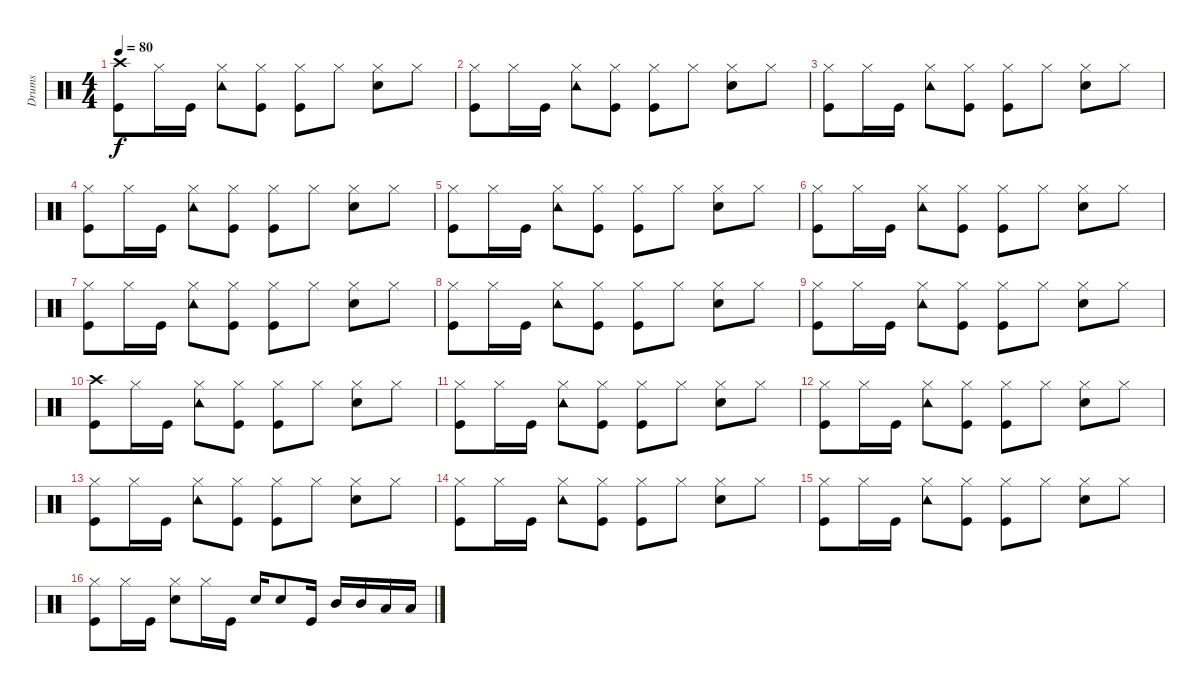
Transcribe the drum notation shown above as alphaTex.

\track ("Drums" "Drums") {instrument percussion}
\staff {score}
\articulation defaults
\ts (4 4)
\tempo 80
\clef neutral
\ks c
("Crash high (hit)" "Kick (hit)").8{dy f} "Hi-Hat (closed)".16 "Kick (hit)".16 ("Tambourine (hit)" "Hi-Hat (closed)").8 ("Hi-Hat (closed)" "Kick (hit)").8 ("Hi-Hat (closed)" "Kick (hit)").8 "Hi-Hat (closed)".8 ("Electric Snare (hit)" "Hi-Hat (closed)").8 "Hi-Hat (closed)".8 |
("Hi-Hat (closed)" "Kick (hit)").8 "Hi-Hat (closed)".16 "Kick (hit)".16 ("Tambourine (hit)" "Hi-Hat (closed)").8 ("Hi-Hat (closed)" "Kick (hit)").8 ("Hi-Hat (closed)" "Kick (hit)").8 "Hi-Hat (closed)".8 ("Electric Snare (hit)" "Hi-Hat (closed)").8 "Hi-Hat (closed)".8 |
("Hi-Hat (closed)" "Kick (hit)").8 "Hi-Hat (closed)".16 "Kick (hit)".16 ("Tambourine (hit)" "Hi-Hat (closed)").8 ("Hi-Hat (closed)" "Kick (hit)").8 ("Hi-Hat (closed)" "Kick (hit)").8 "Hi-Hat (closed)".8 ("Electric Snare (hit)" "Hi-Hat (closed)").8 "Hi-Hat (closed)".8 |
("Hi-Hat (closed)" "Kick (hit)").8 "Hi-Hat (closed)".16 "Kick (hit)".16 ("Tambourine (hit)" "Hi-Hat (closed)").8 ("Hi-Hat (closed)" "Kick (hit)").8 ("Hi-Hat (closed)" "Kick (hit)").8 "Hi-Hat (closed)".8 ("Electric Snare (hit)" "Hi-Hat (closed)").8 "Hi-Hat (closed)".8 |
("Hi-Hat (closed)" "Kick (hit)").8 "Hi-Hat (closed)".16 "Kick (hit)".16 ("Tambourine (hit)" "Hi-Hat (closed)").8 ("Hi-Hat (closed)" "Kick (hit)").8 ("Hi-Hat (closed)" "Kick (hit)").8 "Hi-Hat (closed)".8 ("Electric Snare (hit)" "Hi-Hat (closed)").8 "Hi-Hat (closed)".8 |
("Hi-Hat (closed)" "Kick (hit)").8 "Hi-Hat (closed)".16 "Kick (hit)".16 ("Tambourine (hit)" "Hi-Hat (closed)").8 ("Hi-Hat (closed)" "Kick (hit)").8 ("Hi-Hat (closed)" "Kick (hit)").8 "Hi-Hat (closed)".8 ("Electric Snare (hit)" "Hi-Hat (closed)").8 "Hi-Hat (closed)".8 |
("Hi-Hat (closed)" "Kick (hit)").8 "Hi-Hat (closed)".16 "Kick (hit)".16 ("Tambourine (hit)" "Hi-Hat (closed)").8 ("Hi-Hat (closed)" "Kick (hit)").8 ("Hi-Hat (closed)" "Kick (hit)").8 "Hi-Hat (closed)".8 ("Electric Snare (hit)" "Hi-Hat (closed)").8 "Hi-Hat (closed)".8 |
("Hi-Hat (closed)" "Kick (hit)").8 "Hi-Hat (closed)".16 "Kick (hit)".16 ("Tambourine (hit)" "Hi-Hat (closed)").8 ("Hi-Hat (closed)" "Kick (hit)").8 ("Hi-Hat (closed)" "Kick (hit)").8 "Hi-Hat (closed)".8 ("Electric Snare (hit)" "Hi-Hat (closed)").8 "Hi-Hat (closed)".8 |
("Hi-Hat (closed)" "Kick (hit)").8 "Hi-Hat (closed)".16 "Kick (hit)".16 ("Tambourine (hit)" "Hi-Hat (closed)").8 ("Hi-Hat (closed)" "Kick (hit)").8 ("Hi-Hat (closed)" "Kick (hit)").8 "Hi-Hat (closed)".8 ("Electric Snare (hit)" "Hi-Hat (closed)").8 "Hi-Hat (closed)".8 |
("Crash high (hit)" "Kick (hit)").8 "Hi-Hat (closed)".16 "Kick (hit)".16 ("Tambourine (hit)" "Hi-Hat (closed)").8 ("Hi-Hat (closed)" "Kick (hit)").8 ("Hi-Hat (closed)" "Kick (hit)").8 "Hi-Hat (closed)".8 ("Electric Snare (hit)" "Hi-Hat (closed)").8 "Hi-Hat (closed)".8 |
("Hi-Hat (closed)" "Kick (hit)").8 "Hi-Hat (closed)".16 "Kick (hit)".16 ("Tambourine (hit)" "Hi-Hat (closed)").8 ("Hi-Hat (closed)" "Kick (hit)").8 ("Hi-Hat (closed)" "Kick (hit)").8 "Hi-Hat (closed)".8 ("Electric Snare (hit)" "Hi-Hat (closed)").8 "Hi-Hat (closed)".8 |
("Hi-Hat (closed)" "Kick (hit)").8 "Hi-Hat (closed)".16 "Kick (hit)".16 ("Tambourine (hit)" "Hi-Hat (closed)").8 ("Hi-Hat (closed)" "Kick (hit)").8 ("Hi-Hat (closed)" "Kick (hit)").8 "Hi-Hat (closed)".8 ("Electric Snare (hit)" "Hi-Hat (closed)").8 "Hi-Hat (closed)".8 |
("Hi-Hat (closed)" "Kick (hit)").8 "Hi-Hat (closed)".16 "Kick (hit)".16 ("Tambourine (hit)" "Hi-Hat (closed)").8 ("Hi-Hat (closed)" "Kick (hit)").8 ("Hi-Hat (closed)" "Kick (hit)").8 "Hi-Hat (closed)".8 ("Electric Snare (hit)" "Hi-Hat (closed)").8 "Hi-Hat (closed)".8 |
("Hi-Hat (closed)" "Kick (hit)").8 "Hi-Hat (closed)".16 "Kick (hit)".16 ("Tambourine (hit)" "Hi-Hat (closed)").8 ("Hi-Hat (closed)" "Kick (hit)").8 ("Hi-Hat (closed)" "Kick (hit)").8 "Hi-Hat (closed)".8 ("Electric Snare (hit)" "Hi-Hat (closed)").8 "Hi-Hat (closed)".8 |
("Hi-Hat (closed)" "Kick (hit)").8 "Hi-Hat (closed)".16 "Kick (hit)".16 ("Tambourine (hit)" "Hi-Hat (closed)").8 ("Hi-Hat (closed)" "Kick (hit)").8 ("Hi-Hat (closed)" "Kick (hit)").8 "Hi-Hat (closed)".8 ("Electric Snare (hit)" "Hi-Hat (closed)").8 "Hi-Hat (closed)".8 |
("Hi-Hat (closed)" "Kick (hit)").8 "Hi-Hat (closed)".16 "Kick (hit)".16 ("Electric Snare (hit)" "Hi-Hat (closed)").8 "Hi-Hat (closed)".16 "Kick (hit)".16 "Electric Snare (hit)".16 "Electric Snare (hit)".8 "Kick (hit)".16 "Mid Tom (hit)".16 "Mid Tom (hit)".16 "Low Tom (hit)".16 "Low Tom (hit)".16
